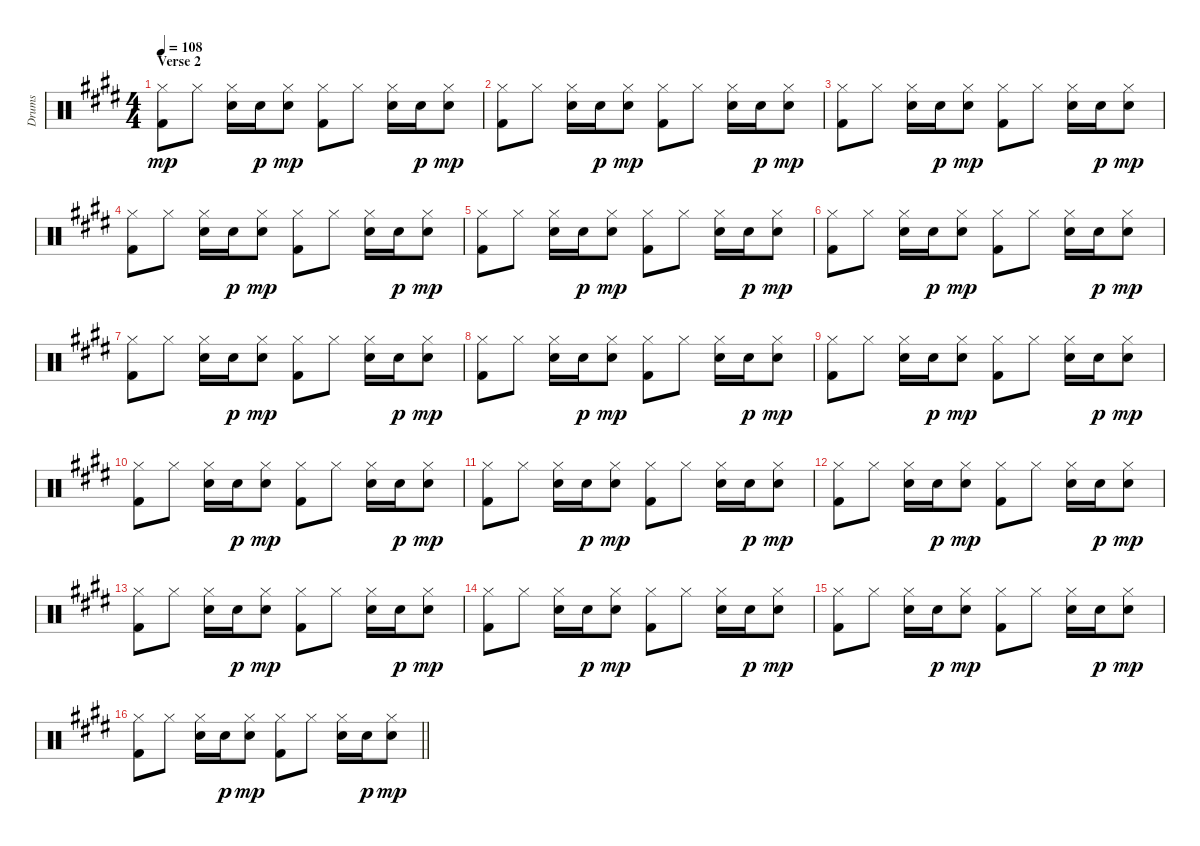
\track ("Drums" "Drums") {instrument percussion bank 7}
\staff {score}
\articulation defaults
\ts (4 4)
\section ("" "Verse 2")
\tempo 108
\clef neutral
\ks e
("Hi-Hat (closed)" "Kick (hit) 2").8{dy mp} "Hi-Hat (closed)".8 ("Electric Snare (hit)" "Hi-Hat (closed)").16 "Electric Snare (hit)".16{dy p} ("Electric Snare (hit)" "Hi-Hat (closed)").8{dy mp} ("Hi-Hat (closed)" "Kick (hit) 2").8 "Hi-Hat (closed)".8 ("Electric Snare (hit)" "Hi-Hat (closed)").16 "Electric Snare (hit)".16{dy p} ("Electric Snare (hit)" "Hi-Hat (closed)").8{dy mp} |
("Hi-Hat (closed)" "Kick (hit) 2").8 "Hi-Hat (closed)".8 ("Electric Snare (hit)" "Hi-Hat (closed)").16 "Electric Snare (hit)".16{dy p} ("Electric Snare (hit)" "Hi-Hat (closed)").8{dy mp} ("Hi-Hat (closed)" "Kick (hit) 2").8 "Hi-Hat (closed)".8 ("Electric Snare (hit)" "Hi-Hat (closed)").16 "Electric Snare (hit)".16{dy p} ("Electric Snare (hit)" "Hi-Hat (closed)").8{dy mp} |
("Hi-Hat (closed)" "Kick (hit) 2").8 "Hi-Hat (closed)".8 ("Electric Snare (hit)" "Hi-Hat (closed)").16 "Electric Snare (hit)".16{dy p} ("Electric Snare (hit)" "Hi-Hat (closed)").8{dy mp} ("Hi-Hat (closed)" "Kick (hit) 2").8 "Hi-Hat (closed)".8 ("Electric Snare (hit)" "Hi-Hat (closed)").16 "Electric Snare (hit)".16{dy p} ("Electric Snare (hit)" "Hi-Hat (closed)").8{dy mp} |
("Hi-Hat (closed)" "Kick (hit) 2").8 "Hi-Hat (closed)".8 ("Electric Snare (hit)" "Hi-Hat (closed)").16 "Electric Snare (hit)".16{dy p} ("Electric Snare (hit)" "Hi-Hat (closed)").8{dy mp} ("Hi-Hat (closed)" "Kick (hit) 2").8 "Hi-Hat (closed)".8 ("Electric Snare (hit)" "Hi-Hat (closed)").16 "Electric Snare (hit)".16{dy p} ("Electric Snare (hit)" "Hi-Hat (closed)").8{dy mp} |
("Hi-Hat (closed)" "Kick (hit) 2").8 "Hi-Hat (closed)".8 ("Electric Snare (hit)" "Hi-Hat (closed)").16 "Electric Snare (hit)".16{dy p} ("Electric Snare (hit)" "Hi-Hat (closed)").8{dy mp} ("Hi-Hat (closed)" "Kick (hit) 2").8 "Hi-Hat (closed)".8 ("Electric Snare (hit)" "Hi-Hat (closed)").16 "Electric Snare (hit)".16{dy p} ("Electric Snare (hit)" "Hi-Hat (closed)").8{dy mp} |
("Hi-Hat (closed)" "Kick (hit) 2").8 "Hi-Hat (closed)".8 ("Electric Snare (hit)" "Hi-Hat (closed)").16 "Electric Snare (hit)".16{dy p} ("Electric Snare (hit)" "Hi-Hat (closed)").8{dy mp} ("Hi-Hat (closed)" "Kick (hit) 2").8 "Hi-Hat (closed)".8 ("Electric Snare (hit)" "Hi-Hat (closed)").16 "Electric Snare (hit)".16{dy p} ("Electric Snare (hit)" "Hi-Hat (closed)").8{dy mp} |
("Hi-Hat (closed)" "Kick (hit) 2").8 "Hi-Hat (closed)".8 ("Electric Snare (hit)" "Hi-Hat (closed)").16 "Electric Snare (hit)".16{dy p} ("Electric Snare (hit)" "Hi-Hat (closed)").8{dy mp} ("Hi-Hat (closed)" "Kick (hit) 2").8 "Hi-Hat (closed)".8 ("Electric Snare (hit)" "Hi-Hat (closed)").16 "Electric Snare (hit)".16{dy p} ("Electric Snare (hit)" "Hi-Hat (closed)").8{dy mp} |
("Hi-Hat (closed)" "Kick (hit) 2").8 "Hi-Hat (closed)".8 ("Electric Snare (hit)" "Hi-Hat (closed)").16 "Electric Snare (hit)".16{dy p} ("Electric Snare (hit)" "Hi-Hat (closed)").8{dy mp} ("Hi-Hat (closed)" "Kick (hit) 2").8 "Hi-Hat (closed)".8 ("Electric Snare (hit)" "Hi-Hat (closed)").16 "Electric Snare (hit)".16{dy p} ("Electric Snare (hit)" "Hi-Hat (closed)").8{dy mp} |
("Hi-Hat (closed)" "Kick (hit) 2").8 "Hi-Hat (closed)".8 ("Electric Snare (hit)" "Hi-Hat (closed)").16 "Electric Snare (hit)".16{dy p} ("Electric Snare (hit)" "Hi-Hat (closed)").8{dy mp} ("Hi-Hat (closed)" "Kick (hit) 2").8 "Hi-Hat (closed)".8 ("Electric Snare (hit)" "Hi-Hat (closed)").16 "Electric Snare (hit)".16{dy p} ("Electric Snare (hit)" "Hi-Hat (closed)").8{dy mp} |
("Hi-Hat (closed)" "Kick (hit) 2").8 "Hi-Hat (closed)".8 ("Electric Snare (hit)" "Hi-Hat (closed)").16 "Electric Snare (hit)".16{dy p} ("Electric Snare (hit)" "Hi-Hat (closed)").8{dy mp} ("Hi-Hat (closed)" "Kick (hit) 2").8 "Hi-Hat (closed)".8 ("Electric Snare (hit)" "Hi-Hat (closed)").16 "Electric Snare (hit)".16{dy p} ("Electric Snare (hit)" "Hi-Hat (closed)").8{dy mp} |
("Hi-Hat (closed)" "Kick (hit) 2").8 "Hi-Hat (closed)".8 ("Electric Snare (hit)" "Hi-Hat (closed)").16 "Electric Snare (hit)".16{dy p} ("Electric Snare (hit)" "Hi-Hat (closed)").8{dy mp} ("Hi-Hat (closed)" "Kick (hit) 2").8 "Hi-Hat (closed)".8 ("Electric Snare (hit)" "Hi-Hat (closed)").16 "Electric Snare (hit)".16{dy p} ("Electric Snare (hit)" "Hi-Hat (closed)").8{dy mp} |
("Hi-Hat (closed)" "Kick (hit) 2").8 "Hi-Hat (closed)".8 ("Electric Snare (hit)" "Hi-Hat (closed)").16 "Electric Snare (hit)".16{dy p} ("Electric Snare (hit)" "Hi-Hat (closed)").8{dy mp} ("Hi-Hat (closed)" "Kick (hit) 2").8 "Hi-Hat (closed)".8 ("Electric Snare (hit)" "Hi-Hat (closed)").16 "Electric Snare (hit)".16{dy p} ("Electric Snare (hit)" "Hi-Hat (closed)").8{dy mp} |
("Hi-Hat (closed)" "Kick (hit) 2").8 "Hi-Hat (closed)".8 ("Electric Snare (hit)" "Hi-Hat (closed)").16 "Electric Snare (hit)".16{dy p} ("Electric Snare (hit)" "Hi-Hat (closed)").8{dy mp} ("Hi-Hat (closed)" "Kick (hit) 2").8 "Hi-Hat (closed)".8 ("Electric Snare (hit)" "Hi-Hat (closed)").16 "Electric Snare (hit)".16{dy p} ("Electric Snare (hit)" "Hi-Hat (closed)").8{dy mp} |
("Hi-Hat (closed)" "Kick (hit) 2").8 "Hi-Hat (closed)".8 ("Electric Snare (hit)" "Hi-Hat (closed)").16 "Electric Snare (hit)".16{dy p} ("Electric Snare (hit)" "Hi-Hat (closed)").8{dy mp} ("Hi-Hat (closed)" "Kick (hit) 2").8 "Hi-Hat (closed)".8 ("Electric Snare (hit)" "Hi-Hat (closed)").16 "Electric Snare (hit)".16{dy p} ("Electric Snare (hit)" "Hi-Hat (closed)").8{dy mp} |
("Hi-Hat (closed)" "Kick (hit) 2").8 "Hi-Hat (closed)".8 ("Electric Snare (hit)" "Hi-Hat (closed)").16 "Electric Snare (hit)".16{dy p} ("Electric Snare (hit)" "Hi-Hat (closed)").8{dy mp} ("Hi-Hat (closed)" "Kick (hit) 2").8 "Hi-Hat (closed)".8 ("Electric Snare (hit)" "Hi-Hat (closed)").16 "Electric Snare (hit)".16{dy p} ("Electric Snare (hit)" "Hi-Hat (closed)").8{dy mp} |
\barLineRight lightlight
("Hi-Hat (closed)" "Kick (hit) 2").8 "Hi-Hat (closed)".8 ("Electric Snare (hit)" "Hi-Hat (closed)").16 "Electric Snare (hit)".16{dy p} ("Electric Snare (hit)" "Hi-Hat (closed)").8{dy mp} ("Hi-Hat (closed)" "Kick (hit) 2").8 "Hi-Hat (closed)".8 ("Electric Snare (hit)" "Hi-Hat (closed)").16 "Electric Snare (hit)".16{dy p} ("Electric Snare (hit)" "Hi-Hat (closed)").8{dy mp}
